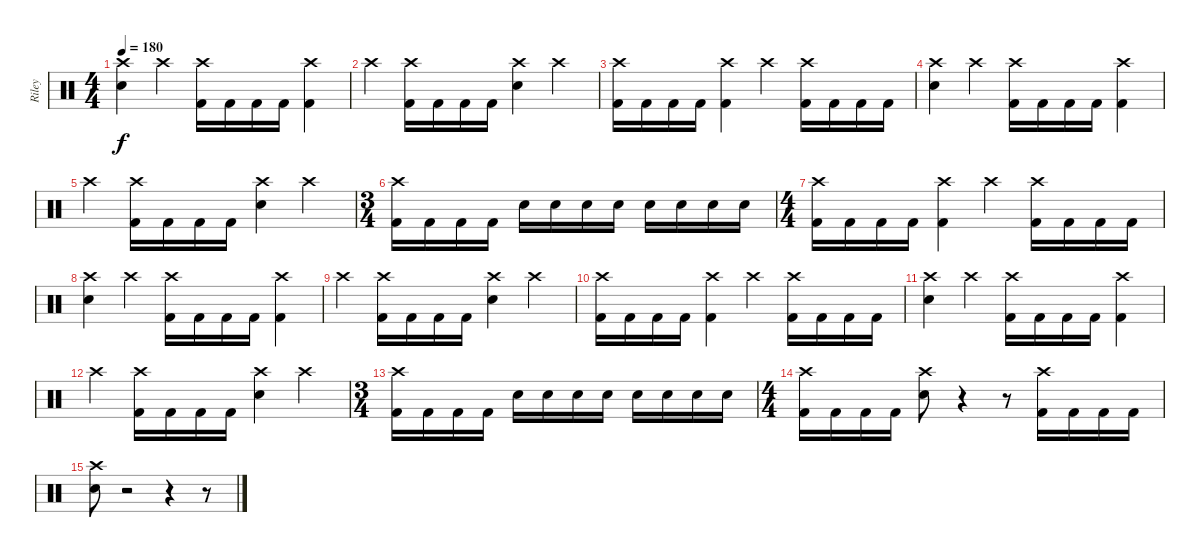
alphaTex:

\track ("Riley" "Riley") {instrument percussion}
\staff {score}
\articulation defaults
\ts (4 4)
\tempo 180
\clef neutral
\ks c
("Crash high (hit)" "Electric Snare (hit)").4{dy f} "Crash high (hit)".4 ("Crash high (hit)" "Kick (hit) 2").16 "Kick (hit) 2".16 "Kick (hit) 2".16 "Kick (hit) 2".16 ("Crash high (hit)" "Kick (hit) 2").4 |
"Crash high (hit)".4 ("Crash high (hit)" "Kick (hit) 2").16 "Kick (hit) 2".16 "Kick (hit) 2".16 "Kick (hit) 2".16 ("Crash high (hit)" "Electric Snare (hit)").4 "Crash high (hit)".4 |
("Crash high (hit)" "Kick (hit) 2").16 "Kick (hit) 2".16 "Kick (hit) 2".16 "Kick (hit) 2".16 ("Crash high (hit)" "Kick (hit) 2").4 "Crash high (hit)".4 ("Crash high (hit)" "Kick (hit) 2").16 "Kick (hit) 2".16 "Kick (hit) 2".16 "Kick (hit) 2".16 |
("Crash high (hit)" "Electric Snare (hit)").4 "Crash high (hit)".4 ("Crash high (hit)" "Kick (hit) 2").16 "Kick (hit) 2".16 "Kick (hit) 2".16 "Kick (hit) 2".16 ("Crash high (hit)" "Kick (hit) 2").4 |
"Crash high (hit)".4 ("Crash high (hit)" "Kick (hit) 2").16 "Kick (hit) 2".16 "Kick (hit) 2".16 "Kick (hit) 2".16 ("Crash high (hit)" "Electric Snare (hit)").4 "Crash high (hit)".4 |
\ts (3 4)
("Crash high (hit)" "Kick (hit) 2").16 "Kick (hit) 2".16 "Kick (hit) 2".16 "Kick (hit) 2".16 "Electric Snare (hit)".16 "Electric Snare (hit)".16 "Electric Snare (hit)".16 "Electric Snare (hit)".16 "Electric Snare (hit)".16 "Electric Snare (hit)".16 "Electric Snare (hit)".16 "Electric Snare (hit)".16 |
\ts (4 4)
("Crash high (hit)" "Kick (hit) 2").16 "Kick (hit) 2".16 "Kick (hit) 2".16 "Kick (hit) 2".16 ("Crash high (hit)" "Kick (hit) 2").4 "Crash high (hit)".4 ("Crash high (hit)" "Kick (hit) 2").16 "Kick (hit) 2".16 "Kick (hit) 2".16 "Kick (hit) 2".16 |
("Crash high (hit)" "Electric Snare (hit)").4 "Crash high (hit)".4 ("Crash high (hit)" "Kick (hit) 2").16 "Kick (hit) 2".16 "Kick (hit) 2".16 "Kick (hit) 2".16 ("Crash high (hit)" "Kick (hit) 2").4 |
"Crash high (hit)".4 ("Crash high (hit)" "Kick (hit) 2").16 "Kick (hit) 2".16 "Kick (hit) 2".16 "Kick (hit) 2".16 ("Crash high (hit)" "Electric Snare (hit)").4 "Crash high (hit)".4 |
("Crash high (hit)" "Kick (hit) 2").16 "Kick (hit) 2".16 "Kick (hit) 2".16 "Kick (hit) 2".16 ("Crash high (hit)" "Kick (hit) 2").4 "Crash high (hit)".4 ("Crash high (hit)" "Kick (hit) 2").16 "Kick (hit) 2".16 "Kick (hit) 2".16 "Kick (hit) 2".16 |
("Crash high (hit)" "Electric Snare (hit)").4 "Crash high (hit)".4 ("Crash high (hit)" "Kick (hit) 2").16 "Kick (hit) 2".16 "Kick (hit) 2".16 "Kick (hit) 2".16 ("Crash high (hit)" "Kick (hit) 2").4 |
"Crash high (hit)".4 ("Crash high (hit)" "Kick (hit) 2").16 "Kick (hit) 2".16 "Kick (hit) 2".16 "Kick (hit) 2".16 ("Crash high (hit)" "Electric Snare (hit)").4 "Crash high (hit)".4 |
\ts (3 4)
("Crash high (hit)" "Kick (hit) 2").16 "Kick (hit) 2".16 "Kick (hit) 2".16 "Kick (hit) 2".16 "Electric Snare (hit)".16 "Electric Snare (hit)".16 "Electric Snare (hit)".16 "Electric Snare (hit)".16 "Electric Snare (hit)".16 "Electric Snare (hit)".16 "Electric Snare (hit)".16 "Electric Snare (hit)".16 |
\ts (4 4)
("Crash high (hit)" "Kick (hit) 2").16 "Kick (hit) 2".16 "Kick (hit) 2".16 "Kick (hit) 2".16 ("Crash high (hit)" "Electric Snare (hit)").8 r.4 r.8 ("Crash high (hit)" "Kick (hit) 2").16 "Kick (hit) 2".16 "Kick (hit) 2".16 "Kick (hit) 2".16 |
("Crash high (hit)" "Electric Snare (hit)").8 r.2 r.4 r.8
